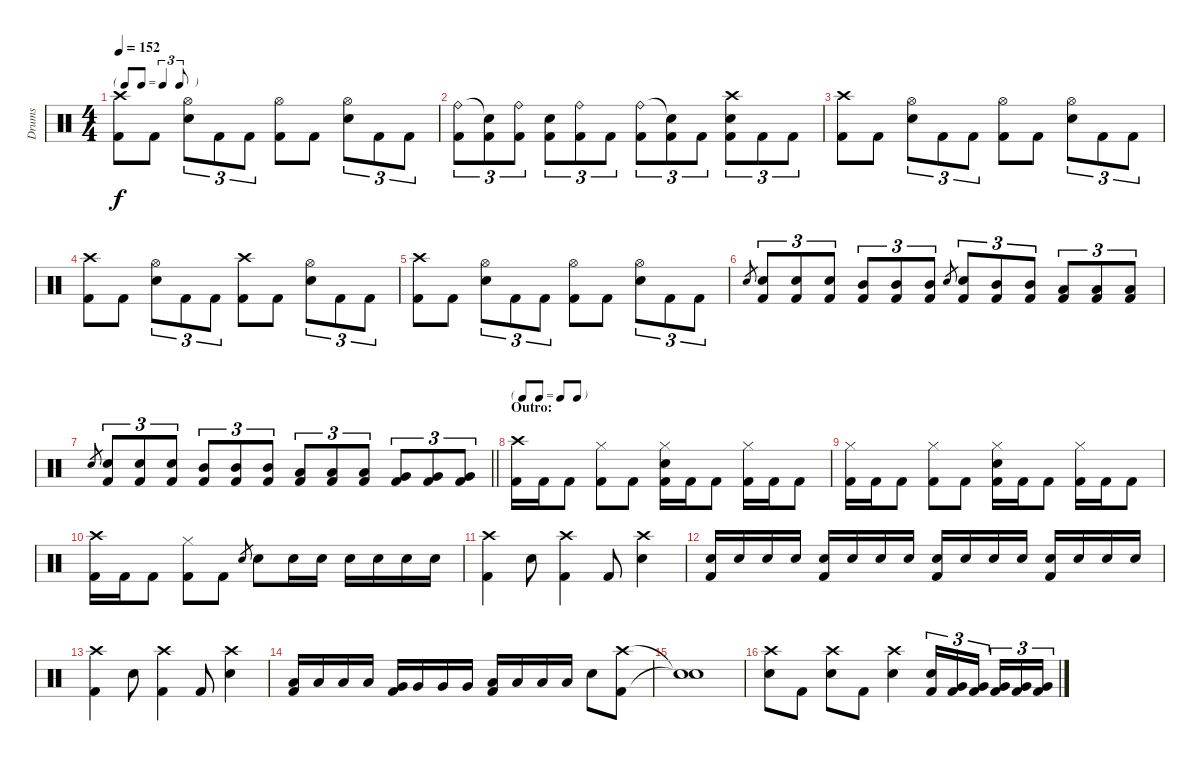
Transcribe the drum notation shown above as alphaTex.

\track ("Drums" "Drums") {instrument percussion}
\staff {score}
\articulation defaults
\ts (4 4)
\tf triplet8th
\tempo 152
\clef neutral
\ks c
("Crash high (hit)" "Kick (hit) 2").8{dy f} "Kick (hit) 2".8 ("Hi-Hat (open)" "Snare (hit) 2").8{tu (3 2)} "Kick (hit) 2".8{tu (3 2)} "Kick (hit) 2".8{tu (3 2)} ("Hi-Hat (open)" "Kick (hit) 2").8 "Kick (hit) 2".8 ("Hi-Hat (open)" "Snare (hit) 2").8{tu (3 2)} "Kick (hit) 2".8{tu (3 2)} "Kick (hit) 2".8{tu (3 2)} |
("Ride (bell)" "Kick (hit) 2").8{tu (3 2)} ("Snare (hit)"{t} "Kick (hit) 2").8{tu (3 2)} ("Ride (bell)" "Kick (hit) 2").8{tu (3 2)} ("Snare (hit) 2" "Kick (hit) 2").8{tu (3 2)} ("Ride (bell)" "Kick (hit) 2").8{tu (3 2)} "Kick (hit) 2".8{tu (3 2)} ("Ride (bell)" "Kick (hit) 2").8{tu (3 2)} ("Snare (hit)"{t} "Kick (hit) 2").8{tu (3 2)} "Kick (hit) 2".8{tu (3 2)} ("Crash high (hit)" "Snare (hit) 2" "Kick (hit) 2").8{tu (3 2)} "Kick (hit) 2".8{tu (3 2)} "Kick (hit) 2".8{tu (3 2)} |
("Crash high (hit)" "Kick (hit) 2").8 "Kick (hit) 2".8 ("Hi-Hat (open)" "Snare (hit) 2").8{tu (3 2)} "Kick (hit) 2".8{tu (3 2)} "Kick (hit) 2".8{tu (3 2)} ("Hi-Hat (open)" "Kick (hit) 2").8 "Kick (hit) 2".8 ("Hi-Hat (open)" "Snare (hit) 2").8{tu (3 2)} "Kick (hit) 2".8{tu (3 2)} "Kick (hit) 2".8{tu (3 2)} |
("Crash high (hit)" "Kick (hit) 2").8 "Kick (hit) 2".8 ("Hi-Hat (open)" "Snare (hit) 2").8{tu (3 2)} "Kick (hit) 2".8{tu (3 2)} "Kick (hit) 2".8{tu (3 2)} ("Crash high (hit)" "Kick (hit) 2").8 "Kick (hit) 2".8 ("Hi-Hat (open)" "Snare (hit) 2").8{tu (3 2)} "Kick (hit) 2".8{tu (3 2)} "Kick (hit) 2".8{tu (3 2)} |
("Crash high (hit)" "Kick (hit) 2").8 "Kick (hit) 2".8 ("Hi-Hat (open)" "Snare (hit) 2").8{tu (3 2)} "Kick (hit) 2".8{tu (3 2)} "Kick (hit) 2".8{tu (3 2)} ("Hi-Hat (open)" "Kick (hit) 2").8 "Kick (hit) 2".8 ("Hi-Hat (open)" "Snare (hit) 2").8{tu (3 2)} "Kick (hit) 2".8{tu (3 2)} "Kick (hit) 2".8{tu (3 2)} |
"Snare (hit) 2".8{gr} ("Snare (hit) 2" "Kick (hit) 2").8{tu (3 2)} ("Snare (hit) 2" "Kick (hit) 2").8{tu (3 2)} ("Snare (hit) 2" "Kick (hit) 2").8{tu (3 2)} ("Mid Tom (hit)" "Kick (hit) 2").8{tu (3 2)} ("Mid Tom (hit)" "Kick (hit) 2").8{tu (3 2)} ("Mid Tom (hit)" "Kick (hit) 2").8{tu (3 2)} "Snare (hit) 2".8{gr} ("Snare (hit) 2" "Kick (hit) 2").8{tu (3 2)} ("Mid Tom (hit)" "Kick (hit) 2").8{tu (3 2)} ("Mid Tom (hit)" "Kick (hit) 2").8{tu (3 2)} ("Low Tom (hit)" "Kick (hit) 2").8{tu (3 2)} ("Low Tom (hit)" "Kick (hit) 2").8{tu (3 2)} ("Low Tom (hit)" "Kick (hit) 2").8{tu (3 2)} |
\barLineRight lightlight "Snare (hit) 2".8{gr}
("Snare (hit) 2" "Kick (hit) 2").8{tu (3 2)} ("Snare (hit) 2" "Kick (hit) 2").8{tu (3 2)} ("Snare (hit) 2" "Kick (hit) 2").8{tu (3 2)} ("Mid Tom (hit)" "Kick (hit) 2").8{tu (3 2)} ("Mid Tom (hit)" "Kick (hit) 2").8{tu (3 2)} ("Mid Tom (hit)" "Kick (hit) 2").8{tu (3 2)} ("Low Tom (hit)" "Kick (hit) 2").8{tu (3 2)} ("Low Tom (hit)" "Kick (hit) 2").8{tu (3 2)} ("Low Tom (hit)" "Kick (hit) 2").8{tu (3 2)} ("Very Low Tom (hit)" "Kick (hit) 2").8{tu (3 2)} ("Very Low Tom (hit)" "Kick (hit) 2").8{tu (3 2)} ("Very Low Tom (hit)" "Kick (hit) 2").8{tu (3 2)} |
\tf none
\section ("" "Outro:")
("Crash high (hit)" "Kick (hit) 2").16 "Kick (hit) 2".16 "Kick (hit) 2".8 ("Hi-Hat (closed)" "Kick (hit) 2").8 "Kick (hit) 2".8 ("Hi-Hat (closed)" "Snare (hit) 2" "Kick (hit) 2").16 "Kick (hit) 2".16 "Kick (hit) 2".8 ("Hi-Hat (closed)" "Kick (hit) 2").16 "Kick (hit) 2".16 "Kick (hit) 2".8 |
("Hi-Hat (closed)" "Kick (hit) 2").16 "Kick (hit) 2".16 "Kick (hit) 2".8 ("Hi-Hat (closed)" "Kick (hit) 2").8 "Kick (hit) 2".8 ("Hi-Hat (closed)" "Snare (hit) 2" "Kick (hit) 2").16 "Kick (hit) 2".16 "Kick (hit) 2".8 ("Hi-Hat (closed)" "Kick (hit) 2").16 "Kick (hit) 2".16 "Kick (hit) 2".8 |
("Crash high (hit)" "Kick (hit) 2").16 "Kick (hit) 2".16 "Kick (hit) 2".8 ("Hi-Hat (closed)" "Kick (hit) 2").8 "Kick (hit) 2".8 "Snare (hit) 2".8{gr} "Snare (hit) 2".8 "Snare (hit) 2".16 "Snare (hit) 2".16 "Snare (hit) 2".16 "Snare (hit) 2".16 "Snare (hit) 2".16 "Snare (hit) 2".16 |
("Crash high (hit)" "Kick (hit) 2").4 "Snare (hit) 2".8 ("Crash high (hit)" "Kick (hit) 2").4 "Kick (hit) 2".8 ("Crash high (hit)" "Snare (hit) 2").4 |
("Snare (hit) 2" "Kick (hit) 2").16 "Snare (hit) 2".16 "Snare (hit) 2".16 "Snare (hit) 2".16 ("Snare (hit) 2" "Kick (hit) 2").16 "Snare (hit) 2".16 "Snare (hit) 2".16 "Snare (hit) 2".16 ("Snare (hit) 2" "Kick (hit) 2").16 "Snare (hit) 2".16 "Snare (hit) 2".16 "Snare (hit) 2".16 ("Snare (hit) 2" "Kick (hit) 2").16 "Snare (hit) 2".16 "Snare (hit) 2".16 "Snare (hit) 2".16 |
("Crash high (hit)" "Kick (hit) 2").4 "Snare (hit) 2".8 ("Crash high (hit)" "Kick (hit) 2").4 "Kick (hit) 2".8 ("Crash high (hit)" "Snare (hit) 2").4 |
("Low Tom (hit)" "Kick (hit) 2").16 "Low Tom (hit)".16 "Low Tom (hit)".16 "Low Tom (hit)".16 ("Very Low Tom (hit)" "Kick (hit) 2").16 "Very Low Tom (hit)".16 "Very Low Tom (hit)".16 "Very Low Tom (hit)".16 ("Low Floor Tom (hit)" "Kick (hit) 2").16 "Low Floor Tom (hit)".16 "Low Floor Tom (hit)".16 "Low Floor Tom (hit)".16 "Snare (hit) 2".8 ("Crash high (hit)" "Kick (hit) 2").8 |
("Snare (hit)"{t} "Snare (hit)"{t}).1 |
("Crash high (hit)" "Snare (hit) 2").8 "Kick (hit) 2".8 ("Crash high (hit)" "Snare (hit) 2").8 "Kick (hit) 2".8 ("Crash high (hit)" "Snare (hit) 2").4 ("Snare (hit) 2" "Kick (hit) 2").16{tu (3 2)} ("Very Low Tom (hit)" "Kick (hit) 2").16{tu (3 2)} ("Very Low Tom (hit)" "Kick (hit) 2").16{tu (3 2) beam splitsecondary} ("Very Low Tom (hit)" "Kick (hit) 2").16{tu (3 2)} ("Very Low Tom (hit)" "Kick (hit) 2").16{tu (3 2)} ("Very Low Tom (hit)" "Kick (hit) 2").16{tu (3 2)}
